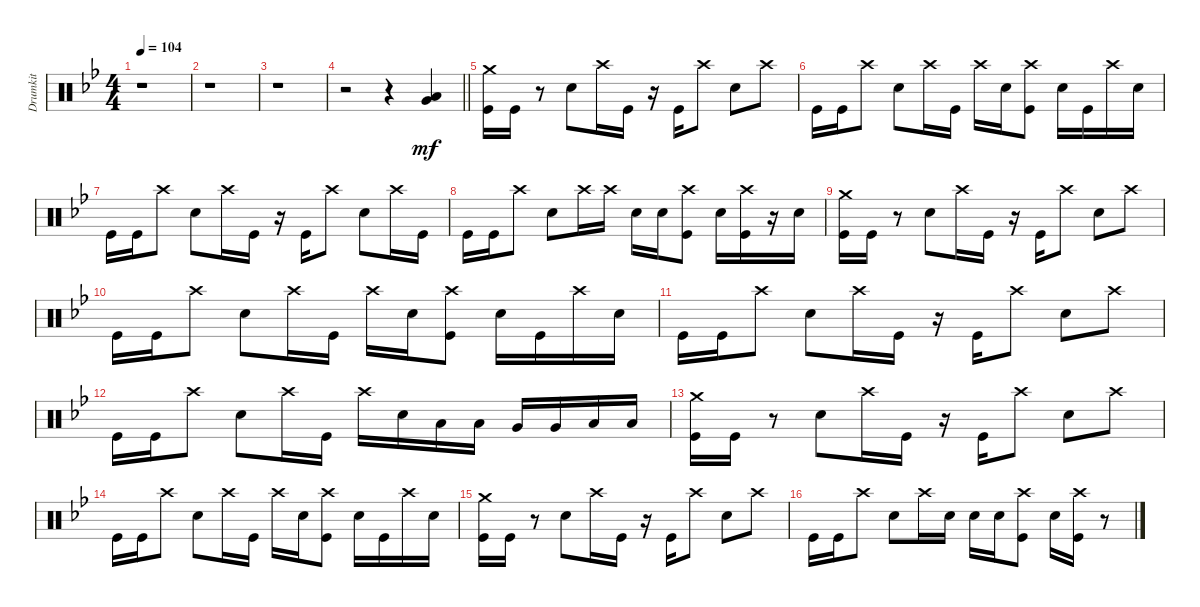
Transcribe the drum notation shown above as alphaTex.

\track ("Drumkit" "Drumkit") {instrument percussion}
\staff {score}
\articulation defaults
\ts (4 4)
\tempo 104
\clef neutral
\ks bb
r.1{dy mf} |
r.1 |
r.1 |
\barLineRight lightlight
r.2 r.4 ("Very Low Tom (hit)" "Low Floor Tom (hit)").4 |
("Kick (hit)" "Crash medium (hit)").16 "Kick (hit)".16 r.8 "Snare (hit) 2".8 "Crash high (hit)".16 "Kick (hit)".16 r.16 "Kick (hit)".16 "Crash high (hit)".8 "Snare (hit) 2".8 "Crash high (hit)".8 |
"Kick (hit)".16 "Kick (hit)".16 "Crash high (hit)".8 "Snare (hit) 2".8 "Crash high (hit)".16 "Kick (hit)".16 "Crash high (hit)".16 "Snare (hit) 2".16 ("Crash high (hit)" "Kick (hit)").8 "Snare (hit) 2".16 "Kick (hit)".16 "Crash high (hit)".16 "Snare (hit) 2".16 |
"Kick (hit)".16 "Kick (hit)".16 "Crash high (hit)".8 "Snare (hit) 2".8 "Crash high (hit)".16 "Kick (hit)".16 r.16 "Kick (hit)".16 "Crash high (hit)".8 "Snare (hit) 2".8 "Crash high (hit)".16 "Kick (hit)".16 |
"Kick (hit)".16 "Kick (hit)".16 "Crash high (hit)".8 "Snare (hit) 2".8 "Crash high (hit)".16 "Crash high (hit)".16 "Snare (hit) 2".16 "Snare (hit) 2".16 ("Crash high (hit)" "Kick (hit)").8 "Snare (hit) 2".16 ("Kick (hit)" "Crash high (hit)").16 r.16 "Snare (hit) 2".16 |
("Kick (hit)" "Crash medium (hit)").16 "Kick (hit)".16 r.8 "Snare (hit) 2".8 "Crash high (hit)".16 "Kick (hit)".16 r.16 "Kick (hit)".16 "Crash high (hit)".8 "Snare (hit) 2".8 "Crash high (hit)".8 |
"Kick (hit)".16 "Kick (hit)".16 "Crash high (hit)".8 "Snare (hit) 2".8 "Crash high (hit)".16 "Kick (hit)".16 "Crash high (hit)".16 "Snare (hit) 2".16 ("Crash high (hit)" "Kick (hit)").8 "Snare (hit) 2".16 "Kick (hit)".16 "Crash high (hit)".16 "Snare (hit) 2".16 |
"Kick (hit)".16 "Kick (hit)".16 "Crash high (hit)".8 "Snare (hit) 2".8 "Crash high (hit)".16 "Kick (hit)".16 r.16 "Kick (hit)".16 "Crash high (hit)".8 "Snare (hit) 2".8 "Crash high (hit)".8 |
"Kick (hit)".16 "Kick (hit)".16 "Crash high (hit)".8 "Snare (hit) 2".8 "Crash high (hit)".16 "Kick (hit)".16 "Crash high (hit)".16 "Snare (hit) 2".16 "Low Tom (hit)".16 "Low Tom (hit)".16 "Very Low Tom (hit)".16 "Very Low Tom (hit)".16 "Low Floor Tom (hit)".16 "Low Floor Tom (hit)".16 |
("Kick (hit)" "Crash medium (hit)").16 "Kick (hit)".16 r.8 "Snare (hit) 2".8 "Crash high (hit)".16 "Kick (hit)".16 r.16 "Kick (hit)".16 "Crash high (hit)".8 "Snare (hit) 2".8 "Crash high (hit)".8 |
"Kick (hit)".16 "Kick (hit)".16 "Crash high (hit)".8 "Snare (hit) 2".8 "Crash high (hit)".16 "Kick (hit)".16 "Crash high (hit)".16 "Snare (hit) 2".16 ("Crash high (hit)" "Kick (hit)").8 "Snare (hit) 2".16 "Kick (hit)".16 "Crash high (hit)".16 "Snare (hit) 2".16 |
("Kick (hit)" "Crash medium (hit)").16 "Kick (hit)".16 r.8 "Snare (hit) 2".8 "Crash high (hit)".16 "Kick (hit)".16 r.16 "Kick (hit)".16 "Crash high (hit)".8 "Snare (hit) 2".8 "Crash high (hit)".8 |
"Kick (hit)".16 "Kick (hit)".16 "Crash high (hit)".8 "Snare (hit) 2".8 "Crash high (hit)".16 "Snare (hit) 2".16 "Snare (hit) 2".16 "Snare (hit) 2".16 ("Crash high (hit)" "Kick (hit)").8 "Snare (hit) 2".16 ("Kick (hit)" "Crash high (hit)").16 r.8
